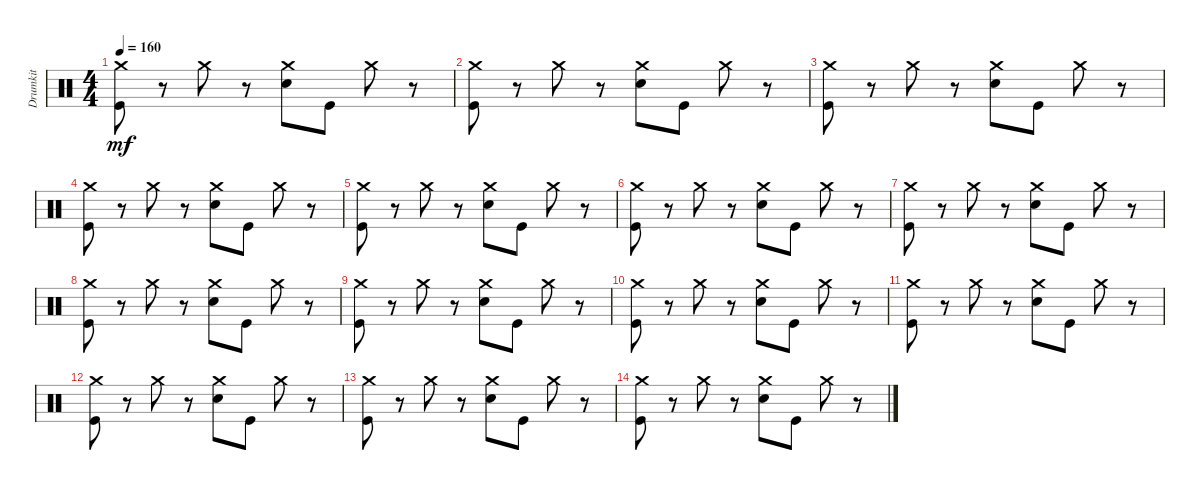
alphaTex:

\track ("Drumkit" "Drumkit") {instrument percussion}
\staff {score}
\articulation defaults
\ts (4 4)
\tempo 160
\clef neutral
\ks c
("Kick (hit)" "Crash medium (hit)").8{dy mf} r.8 "Crash medium (hit)".8 r.8 ("Snare (hit) 2" "Crash medium (hit)").8 "Kick (hit)".8 "Crash medium (hit)".8 r.8 |
("Kick (hit)" "Crash medium (hit)").8 r.8 "Crash medium (hit)".8 r.8 ("Snare (hit) 2" "Crash medium (hit)").8 "Kick (hit)".8 "Crash medium (hit)".8 r.8 |
("Kick (hit)" "Crash medium (hit)").8 r.8 "Crash medium (hit)".8 r.8 ("Snare (hit) 2" "Crash medium (hit)").8 "Kick (hit)".8 "Crash medium (hit)".8 r.8 |
("Kick (hit)" "Crash medium (hit)").8 r.8 "Crash medium (hit)".8 r.8 ("Snare (hit) 2" "Crash medium (hit)").8 "Kick (hit)".8 "Crash medium (hit)".8 r.8 |
("Kick (hit)" "Crash medium (hit)").8 r.8 "Crash medium (hit)".8 r.8 ("Snare (hit) 2" "Crash medium (hit)").8 "Kick (hit)".8 "Crash medium (hit)".8 r.8 |
("Kick (hit)" "Crash medium (hit)").8 r.8 "Crash medium (hit)".8 r.8 ("Snare (hit) 2" "Crash medium (hit)").8 "Kick (hit)".8 "Crash medium (hit)".8 r.8 |
("Kick (hit)" "Crash medium (hit)").8 r.8 "Crash medium (hit)".8 r.8 ("Snare (hit) 2" "Crash medium (hit)").8 "Kick (hit)".8 "Crash medium (hit)".8 r.8 |
("Kick (hit)" "Crash medium (hit)").8 r.8 "Crash medium (hit)".8 r.8 ("Snare (hit) 2" "Crash medium (hit)").8 "Kick (hit)".8 "Crash medium (hit)".8 r.8 |
("Kick (hit)" "Crash medium (hit)").8 r.8 "Crash medium (hit)".8 r.8 ("Snare (hit) 2" "Crash medium (hit)").8 "Kick (hit)".8 "Crash medium (hit)".8 r.8 |
("Kick (hit)" "Crash medium (hit)").8 r.8 "Crash medium (hit)".8 r.8 ("Snare (hit) 2" "Crash medium (hit)").8 "Kick (hit)".8 "Crash medium (hit)".8 r.8 |
("Kick (hit)" "Crash medium (hit)").8 r.8 "Crash medium (hit)".8 r.8 ("Snare (hit) 2" "Crash medium (hit)").8 "Kick (hit)".8 "Crash medium (hit)".8 r.8 |
("Kick (hit)" "Crash medium (hit)").8 r.8 "Crash medium (hit)".8 r.8 ("Snare (hit) 2" "Crash medium (hit)").8 "Kick (hit)".8 "Crash medium (hit)".8 r.8 |
("Kick (hit)" "Crash medium (hit)").8 r.8 "Crash medium (hit)".8 r.8 ("Snare (hit) 2" "Crash medium (hit)").8 "Kick (hit)".8 "Crash medium (hit)".8 r.8 |
("Kick (hit)" "Crash medium (hit)").8 r.8 "Crash medium (hit)".8 r.8 ("Snare (hit) 2" "Crash medium (hit)").8 "Kick (hit)".8 "Crash medium (hit)".8 r.8
